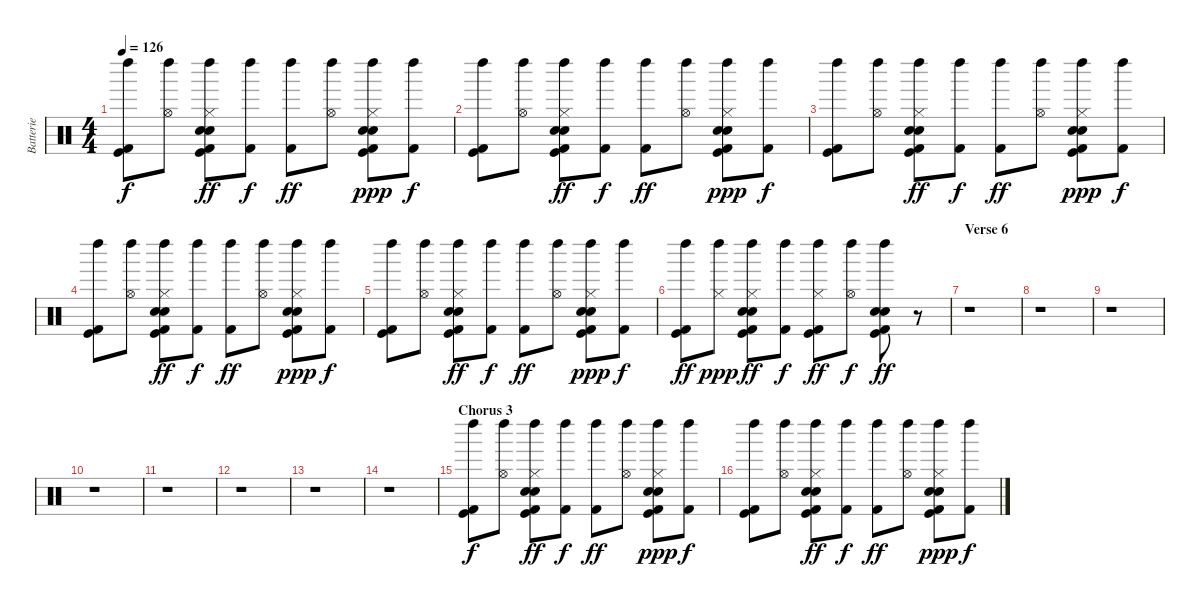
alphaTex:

\track ("Batterie" "Batterie") {instrument percussion}
\staff {score}
\articulation defaults
\ts (4 4)
\tempo 126
\clef neutral
\ks c
("Left Maraca (hit)" "Kick (hit)" "Kick (hit) 2").8{dy f} ("Left Maraca (hit)" "Hi-Hat (open)").8 ("Left Maraca (hit)" "Hi-Hat (closed)" "Electric Snare (hit)" "Hand Clap (hit)" "Kick (hit)" "Kick (hit) 2").8{dy ff} ("Left Maraca (hit)" "Kick (hit) 2").8{dy f} ("Left Maraca (hit)" "Kick (hit) 2").8{dy ff} ("Left Maraca (hit)" "Hi-Hat (open)").8 ("Left Maraca (hit)" "Hi-Hat (closed)" "Electric Snare (hit)" "Hand Clap (hit)" "Kick (hit)" "Kick (hit) 2").8{dy ppp} ("Left Maraca (hit)" "Kick (hit) 2").8{dy f} |
("Left Maraca (hit)" "Kick (hit)" "Kick (hit) 2").8 ("Left Maraca (hit)" "Hi-Hat (open)").8 ("Left Maraca (hit)" "Hi-Hat (closed)" "Electric Snare (hit)" "Hand Clap (hit)" "Kick (hit)" "Kick (hit) 2").8{dy ff} ("Left Maraca (hit)" "Kick (hit) 2").8{dy f} ("Left Maraca (hit)" "Kick (hit) 2").8{dy ff} ("Left Maraca (hit)" "Hi-Hat (open)").8 ("Left Maraca (hit)" "Hi-Hat (closed)" "Electric Snare (hit)" "Hand Clap (hit)" "Kick (hit)" "Kick (hit) 2").8{dy ppp} ("Left Maraca (hit)" "Kick (hit) 2").8{dy f} |
("Left Maraca (hit)" "Kick (hit)" "Kick (hit) 2").8 ("Left Maraca (hit)" "Hi-Hat (open)").8 ("Left Maraca (hit)" "Hi-Hat (closed)" "Electric Snare (hit)" "Hand Clap (hit)" "Kick (hit)" "Kick (hit) 2").8{dy ff} ("Left Maraca (hit)" "Kick (hit) 2").8{dy f} ("Left Maraca (hit)" "Kick (hit) 2").8{dy ff} ("Left Maraca (hit)" "Hi-Hat (open)").8 ("Left Maraca (hit)" "Hi-Hat (closed)" "Electric Snare (hit)" "Hand Clap (hit)" "Kick (hit)" "Kick (hit) 2").8{dy ppp} ("Left Maraca (hit)" "Kick (hit) 2").8{dy f} |
("Left Maraca (hit)" "Kick (hit)" "Kick (hit) 2").8 ("Left Maraca (hit)" "Hi-Hat (open)").8 ("Left Maraca (hit)" "Hi-Hat (closed)" "Electric Snare (hit)" "Hand Clap (hit)" "Kick (hit)" "Kick (hit) 2").8{dy ff} ("Left Maraca (hit)" "Kick (hit) 2").8{dy f} ("Left Maraca (hit)" "Kick (hit) 2").8{dy ff} ("Left Maraca (hit)" "Hi-Hat (open)").8 ("Left Maraca (hit)" "Hi-Hat (closed)" "Electric Snare (hit)" "Hand Clap (hit)" "Kick (hit)" "Kick (hit) 2").8{dy ppp} ("Left Maraca (hit)" "Kick (hit) 2").8{dy f} |
("Left Maraca (hit)" "Kick (hit)" "Kick (hit) 2").8 ("Left Maraca (hit)" "Hi-Hat (open)").8 ("Left Maraca (hit)" "Hi-Hat (closed)" "Electric Snare (hit)" "Hand Clap (hit)" "Kick (hit)" "Kick (hit) 2").8{dy ff} ("Left Maraca (hit)" "Kick (hit) 2").8{dy f} ("Left Maraca (hit)" "Kick (hit) 2").8{dy ff} ("Left Maraca (hit)" "Hi-Hat (open)").8 ("Left Maraca (hit)" "Hi-Hat (closed)" "Electric Snare (hit)" "Hand Clap (hit)" "Kick (hit)" "Kick (hit) 2").8{dy ppp} ("Left Maraca (hit)" "Kick (hit) 2").8{dy f} |
("Left Maraca (hit)" "Kick (hit)" "Kick (hit) 2").8{dy ff} ("Left Maraca (hit)" "Hi-Hat (closed)").8{dy ppp} ("Left Maraca (hit)" "Hi-Hat (closed)" "Electric Snare (hit)" "Hand Clap (hit)" "Kick (hit)" "Kick (hit) 2").8{dy ff} ("Left Maraca (hit)" "Kick (hit) 2").8{dy f} ("Left Maraca (hit)" "Hi-Hat (closed)" "Kick (hit)" "Kick (hit) 2").8{dy ff} ("Left Maraca (hit)" "Hi-Hat (open)").8{dy f} ("Left Maraca (hit)" "Electric Snare (hit)" "Hand Clap (hit)" "Kick (hit)" "Kick (hit) 2").8{dy ff} r.8 |
\section ("" "Verse 6")
r.1 |
r.1 |
r.1 |
r.1 |
r.1 |
r.1 |
r.1 |
r.1 |
\section ("" "Chorus 3")
("Left Maraca (hit)" "Kick (hit)" "Kick (hit) 2").8{dy f} ("Left Maraca (hit)" "Hi-Hat (open)").8 ("Left Maraca (hit)" "Hi-Hat (closed)" "Electric Snare (hit)" "Hand Clap (hit)" "Kick (hit)" "Kick (hit) 2").8{dy ff} ("Left Maraca (hit)" "Kick (hit) 2").8{dy f} ("Left Maraca (hit)" "Kick (hit) 2").8{dy ff} ("Left Maraca (hit)" "Hi-Hat (open)").8 ("Left Maraca (hit)" "Hi-Hat (closed)" "Electric Snare (hit)" "Hand Clap (hit)" "Kick (hit)" "Kick (hit) 2").8{dy ppp} ("Left Maraca (hit)" "Kick (hit) 2").8{dy f} |
("Left Maraca (hit)" "Kick (hit)" "Kick (hit) 2").8 ("Left Maraca (hit)" "Hi-Hat (open)").8 ("Left Maraca (hit)" "Hi-Hat (closed)" "Electric Snare (hit)" "Hand Clap (hit)" "Kick (hit)" "Kick (hit) 2").8{dy ff} ("Left Maraca (hit)" "Kick (hit) 2").8{dy f} ("Left Maraca (hit)" "Kick (hit) 2").8{dy ff} ("Left Maraca (hit)" "Hi-Hat (open)").8 ("Left Maraca (hit)" "Hi-Hat (closed)" "Electric Snare (hit)" "Hand Clap (hit)" "Kick (hit)" "Kick (hit) 2").8{dy ppp} ("Left Maraca (hit)" "Kick (hit) 2").8{dy f}
